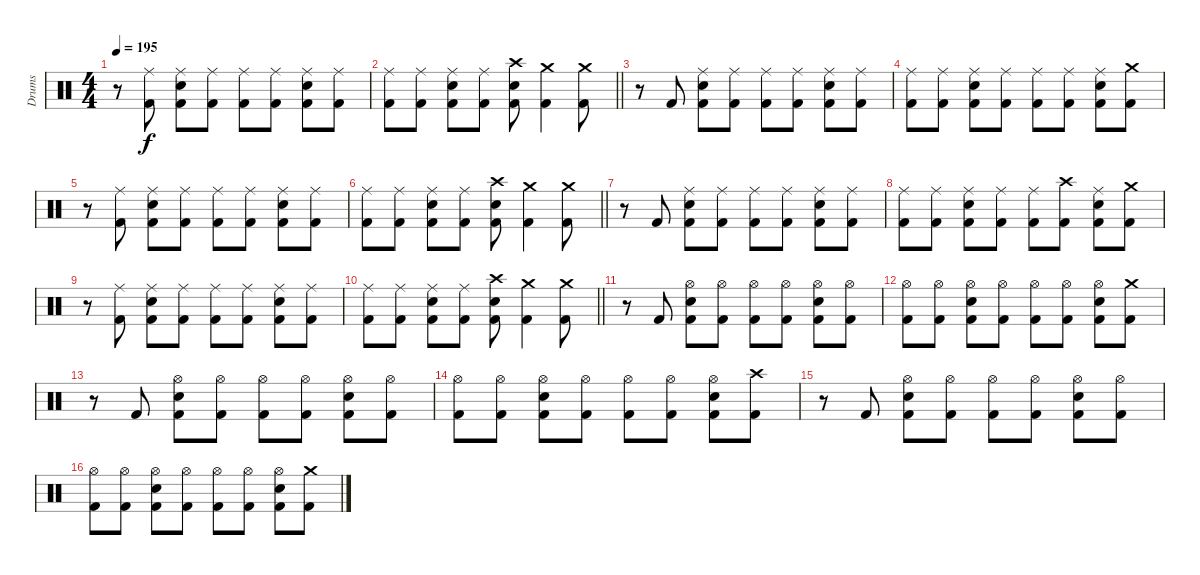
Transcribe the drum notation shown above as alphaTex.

\track ("Drums" "Drums") {instrument percussion}
\staff {score}
\articulation defaults
\ts (4 4)
\tempo 195
\clef neutral
\ks c
r.8{dy f} ("Ride (middle)" "Kick (hit) 2").8 ("Ride (middle)" "Electric Snare (hit)" "Kick (hit) 2").8 ("Ride (middle)" "Kick (hit) 2").8 ("Ride (middle)" "Kick (hit) 2").8 ("Ride (middle)" "Kick (hit) 2").8 ("Ride (middle)" "Electric Snare (hit)" "Kick (hit) 2").8 ("Ride (middle)" "Kick (hit) 2").8 |
\barLineRight lightlight
("Ride (middle)" "Kick (hit) 2").8 ("Ride (middle)" "Kick (hit) 2").8 ("Ride (middle)" "Electric Snare (hit)" "Kick (hit) 2").8 ("Ride (middle)" "Kick (hit) 2").8 ("Crash high (hit)" "Electric Snare (hit)" "Kick (hit) 2").8 ("Crash medium (hit)" "Kick (hit) 2").4 ("Crash medium (hit)" "Kick (hit) 2").8 |
r.8 "Kick (hit) 2".8 ("Ride (middle)" "Electric Snare (hit)" "Kick (hit) 2").8 ("Ride (middle)" "Kick (hit) 2").8 ("Ride (middle)" "Kick (hit) 2").8 ("Ride (middle)" "Kick (hit) 2").8 ("Ride (middle)" "Electric Snare (hit)" "Kick (hit) 2").8 ("Ride (middle)" "Kick (hit) 2").8 |
("Ride (middle)" "Kick (hit) 2").8 ("Ride (middle)" "Kick (hit) 2").8 ("Ride (middle)" "Electric Snare (hit)" "Kick (hit) 2").8 ("Ride (middle)" "Kick (hit) 2").8 ("Ride (middle)" "Kick (hit) 2").8 ("Ride (middle)" "Kick (hit) 2").8 ("Ride (middle)" "Electric Snare (hit)" "Kick (hit) 2").8 ("Crash medium (hit)" "Kick (hit) 2").8 |
r.8 ("Ride (middle)" "Kick (hit) 2").8 ("Ride (middle)" "Electric Snare (hit)" "Kick (hit) 2").8 ("Ride (middle)" "Kick (hit) 2").8 ("Ride (middle)" "Kick (hit) 2").8 ("Ride (middle)" "Kick (hit) 2").8 ("Ride (middle)" "Electric Snare (hit)" "Kick (hit) 2").8 ("Ride (middle)" "Kick (hit) 2").8 |
\barLineRight lightlight
("Ride (middle)" "Kick (hit) 2").8 ("Ride (middle)" "Kick (hit) 2").8 ("Ride (middle)" "Electric Snare (hit)" "Kick (hit) 2").8 ("Ride (middle)" "Kick (hit) 2").8 ("Crash high (hit)" "Electric Snare (hit)" "Kick (hit) 2").8 ("Crash medium (hit)" "Kick (hit) 2").4 ("Crash medium (hit)" "Kick (hit) 2").8 |
r.8 "Kick (hit) 2".8 ("Ride (middle)" "Electric Snare (hit)" "Kick (hit) 2").8 ("Ride (middle)" "Kick (hit) 2").8 ("Ride (middle)" "Kick (hit) 2").8 ("Ride (middle)" "Kick (hit) 2").8 ("Ride (middle)" "Electric Snare (hit)" "Kick (hit) 2").8 ("Ride (middle)" "Kick (hit) 2").8 |
("Ride (middle)" "Kick (hit) 2").8 ("Ride (middle)" "Kick (hit) 2").8 ("Ride (middle)" "Electric Snare (hit)" "Kick (hit) 2").8 ("Ride (middle)" "Kick (hit) 2").8 ("Ride (middle)" "Kick (hit) 2").8 ("Crash high (hit)" "Kick (hit) 2").8 ("Ride (middle)" "Electric Snare (hit)" "Kick (hit) 2").8 ("Crash medium (hit)" "Kick (hit) 2").8 |
r.8 ("Ride (middle)" "Kick (hit) 2").8 ("Ride (middle)" "Electric Snare (hit)" "Kick (hit) 2").8 ("Ride (middle)" "Kick (hit) 2").8 ("Ride (middle)" "Kick (hit) 2").8 ("Ride (middle)" "Kick (hit) 2").8 ("Ride (middle)" "Electric Snare (hit)" "Kick (hit) 2").8 ("Ride (middle)" "Kick (hit) 2").8 |
\barLineRight lightlight
("Ride (middle)" "Kick (hit) 2").8 ("Ride (middle)" "Kick (hit) 2").8 ("Ride (middle)" "Electric Snare (hit)" "Kick (hit) 2").8 ("Ride (middle)" "Kick (hit) 2").8 ("Crash high (hit)" "Electric Snare (hit)" "Kick (hit) 2").8 ("Crash medium (hit)" "Kick (hit) 2").4 ("Crash medium (hit)" "Kick (hit) 2").8 |
\section ("" "")
r.8 "Kick (hit) 2".8 ("Hi-Hat (open)" "Electric Snare (hit)" "Kick (hit) 2").8 ("Hi-Hat (open)" "Kick (hit) 2").8 ("Hi-Hat (open)" "Kick (hit) 2").8 ("Hi-Hat (open)" "Kick (hit) 2").8 ("Hi-Hat (open)" "Electric Snare (hit)" "Kick (hit) 2").8 ("Hi-Hat (open)" "Kick (hit) 2").8 |
("Hi-Hat (open)" "Kick (hit) 2").8 ("Hi-Hat (open)" "Kick (hit) 2").8 ("Hi-Hat (open)" "Electric Snare (hit)" "Kick (hit) 2").8 ("Hi-Hat (open)" "Kick (hit) 2").8 ("Hi-Hat (open)" "Kick (hit) 2").8 ("Hi-Hat (open)" "Kick (hit) 2").8 ("Hi-Hat (open)" "Electric Snare (hit)" "Kick (hit) 2").8 ("Crash medium (hit)" "Kick (hit) 2").8 |
r.8 "Kick (hit) 2".8 ("Hi-Hat (open)" "Electric Snare (hit)" "Kick (hit) 2").8 ("Hi-Hat (open)" "Kick (hit) 2").8 ("Hi-Hat (open)" "Kick (hit) 2").8 ("Hi-Hat (open)" "Kick (hit) 2").8 ("Hi-Hat (open)" "Electric Snare (hit)" "Kick (hit) 2").8 ("Hi-Hat (open)" "Kick (hit) 2").8 |
("Hi-Hat (open)" "Kick (hit) 2").8 ("Hi-Hat (open)" "Kick (hit) 2").8 ("Hi-Hat (open)" "Electric Snare (hit)" "Kick (hit) 2").8 ("Hi-Hat (open)" "Kick (hit) 2").8 ("Hi-Hat (open)" "Kick (hit) 2").8 ("Hi-Hat (open)" "Kick (hit) 2").8 ("Hi-Hat (open)" "Electric Snare (hit)" "Kick (hit) 2").8 ("Crash high (hit)" "Kick (hit) 2").8 |
r.8 "Kick (hit) 2".8 ("Hi-Hat (open)" "Electric Snare (hit)" "Kick (hit) 2").8 ("Hi-Hat (open)" "Kick (hit) 2").8 ("Hi-Hat (open)" "Kick (hit) 2").8 ("Hi-Hat (open)" "Kick (hit) 2").8 ("Hi-Hat (open)" "Electric Snare (hit)" "Kick (hit) 2").8 ("Hi-Hat (open)" "Kick (hit) 2").8 |
("Hi-Hat (open)" "Kick (hit) 2").8 ("Hi-Hat (open)" "Kick (hit) 2").8 ("Hi-Hat (open)" "Electric Snare (hit)" "Kick (hit) 2").8 ("Hi-Hat (open)" "Kick (hit) 2").8 ("Hi-Hat (open)" "Kick (hit) 2").8 ("Hi-Hat (open)" "Kick (hit) 2").8 ("Hi-Hat (open)" "Electric Snare (hit)" "Kick (hit) 2").8 ("Crash medium (hit)" "Kick (hit) 2").8
